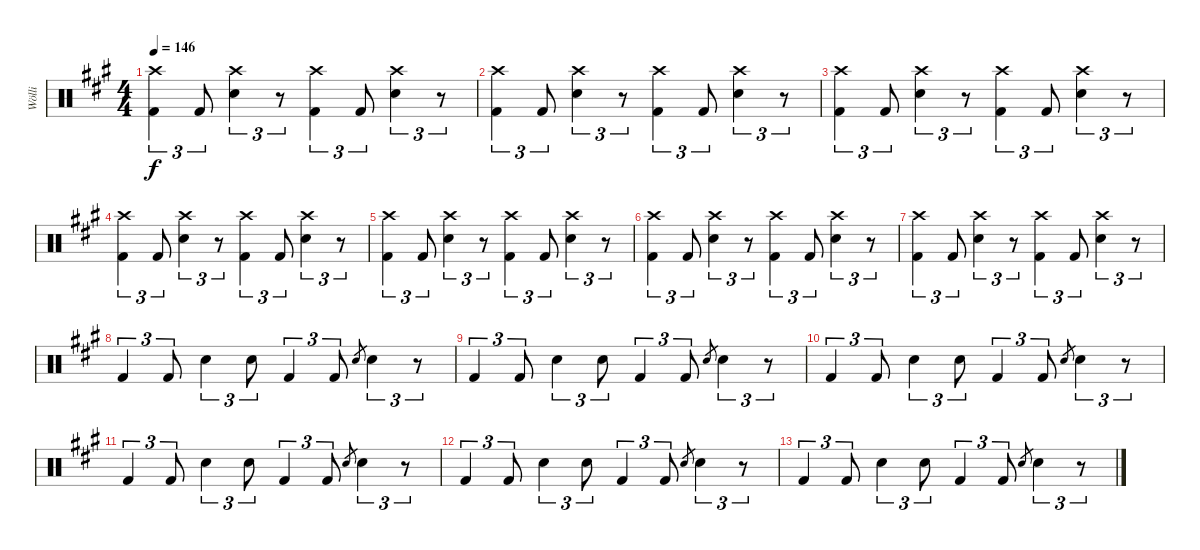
\track ("Wölli" "Wölli") {instrument percussion}
\staff {score}
\articulation defaults
\ts (4 4)
\tempo 146
\clef neutral
\ks a
("Crash high (hit)" "Kick (hit) 2").4{tu (3 2) dy f} "Kick (hit) 2".8{tu (3 2)} ("Crash high (hit)" "Snare (hit) 2").4{tu (3 2)} r.8{tu (3 2)} ("Crash high (hit)" "Kick (hit) 2").4{tu (3 2)} "Kick (hit) 2".8{tu (3 2)} ("Crash high (hit)" "Snare (hit) 2").4{tu (3 2)} r.8{tu (3 2)} |
("Crash high (hit)" "Kick (hit) 2").4{tu (3 2)} "Kick (hit) 2".8{tu (3 2)} ("Crash high (hit)" "Snare (hit) 2").4{tu (3 2)} r.8{tu (3 2)} ("Crash high (hit)" "Kick (hit) 2").4{tu (3 2)} "Kick (hit) 2".8{tu (3 2)} ("Crash high (hit)" "Snare (hit) 2").4{tu (3 2)} r.8{tu (3 2)} |
("Crash high (hit)" "Kick (hit) 2").4{tu (3 2)} "Kick (hit) 2".8{tu (3 2)} ("Crash high (hit)" "Snare (hit) 2").4{tu (3 2)} r.8{tu (3 2)} ("Crash high (hit)" "Kick (hit) 2").4{tu (3 2)} "Kick (hit) 2".8{tu (3 2)} ("Crash high (hit)" "Snare (hit) 2").4{tu (3 2)} r.8{tu (3 2)} |
("Crash high (hit)" "Kick (hit) 2").4{tu (3 2)} "Kick (hit) 2".8{tu (3 2)} ("Crash high (hit)" "Snare (hit) 2").4{tu (3 2)} r.8{tu (3 2)} ("Crash high (hit)" "Kick (hit) 2").4{tu (3 2)} "Kick (hit) 2".8{tu (3 2)} ("Crash high (hit)" "Snare (hit) 2").4{tu (3 2)} r.8{tu (3 2)} |
("Crash high (hit)" "Kick (hit) 2").4{tu (3 2)} "Kick (hit) 2".8{tu (3 2)} ("Crash high (hit)" "Snare (hit) 2").4{tu (3 2)} r.8{tu (3 2)} ("Crash high (hit)" "Kick (hit) 2").4{tu (3 2)} "Kick (hit) 2".8{tu (3 2)} ("Crash high (hit)" "Snare (hit) 2").4{tu (3 2)} r.8{tu (3 2)} |
("Crash high (hit)" "Kick (hit) 2").4{tu (3 2)} "Kick (hit) 2".8{tu (3 2)} ("Crash high (hit)" "Snare (hit) 2").4{tu (3 2)} r.8{tu (3 2)} ("Crash high (hit)" "Kick (hit) 2").4{tu (3 2)} "Kick (hit) 2".8{tu (3 2)} ("Crash high (hit)" "Snare (hit) 2").4{tu (3 2)} r.8{tu (3 2)} |
("Crash high (hit)" "Kick (hit) 2").4{tu (3 2)} "Kick (hit) 2".8{tu (3 2)} ("Crash high (hit)" "Snare (hit) 2").4{tu (3 2)} r.8{tu (3 2)} ("Crash high (hit)" "Kick (hit) 2").4{tu (3 2)} "Kick (hit) 2".8{tu (3 2)} ("Crash high (hit)" "Snare (hit) 2").4{tu (3 2)} r.8{tu (3 2)} |
"Kick (hit) 2".4{tu (3 2)} "Kick (hit) 2".8{tu (3 2)} "Snare (hit) 2".4{tu (3 2)} "Snare (hit) 2".8{tu (3 2)} "Kick (hit) 2".4{tu (3 2)} "Kick (hit) 2".8{tu (3 2)} "Snare (hit) 2".8{gr} "Snare (hit) 2".4{tu (3 2)} r.8{tu (3 2)} |
"Kick (hit) 2".4{tu (3 2)} "Kick (hit) 2".8{tu (3 2)} "Snare (hit) 2".4{tu (3 2)} "Snare (hit) 2".8{tu (3 2)} "Kick (hit) 2".4{tu (3 2)} "Kick (hit) 2".8{tu (3 2)} "Snare (hit) 2".8{gr} "Snare (hit) 2".4{tu (3 2)} r.8{tu (3 2)} |
"Kick (hit) 2".4{tu (3 2)} "Kick (hit) 2".8{tu (3 2)} "Snare (hit) 2".4{tu (3 2)} "Snare (hit) 2".8{tu (3 2)} "Kick (hit) 2".4{tu (3 2)} "Kick (hit) 2".8{tu (3 2)} "Snare (hit) 2".8{gr} "Snare (hit) 2".4{tu (3 2)} r.8{tu (3 2)} |
"Kick (hit) 2".4{tu (3 2)} "Kick (hit) 2".8{tu (3 2)} "Snare (hit) 2".4{tu (3 2)} "Snare (hit) 2".8{tu (3 2)} "Kick (hit) 2".4{tu (3 2)} "Kick (hit) 2".8{tu (3 2)} "Snare (hit) 2".8{gr} "Snare (hit) 2".4{tu (3 2)} r.8{tu (3 2)} |
"Kick (hit) 2".4{tu (3 2)} "Kick (hit) 2".8{tu (3 2)} "Snare (hit) 2".4{tu (3 2)} "Snare (hit) 2".8{tu (3 2)} "Kick (hit) 2".4{tu (3 2)} "Kick (hit) 2".8{tu (3 2)} "Snare (hit) 2".8{gr} "Snare (hit) 2".4{tu (3 2)} r.8{tu (3 2)} |
"Kick (hit) 2".4{tu (3 2)} "Kick (hit) 2".8{tu (3 2)} "Snare (hit) 2".4{tu (3 2)} "Snare (hit) 2".8{tu (3 2)} "Kick (hit) 2".4{tu (3 2)} "Kick (hit) 2".8{tu (3 2)} "Snare (hit) 2".8{gr} "Snare (hit) 2".4{tu (3 2)} r.8{tu (3 2)}
